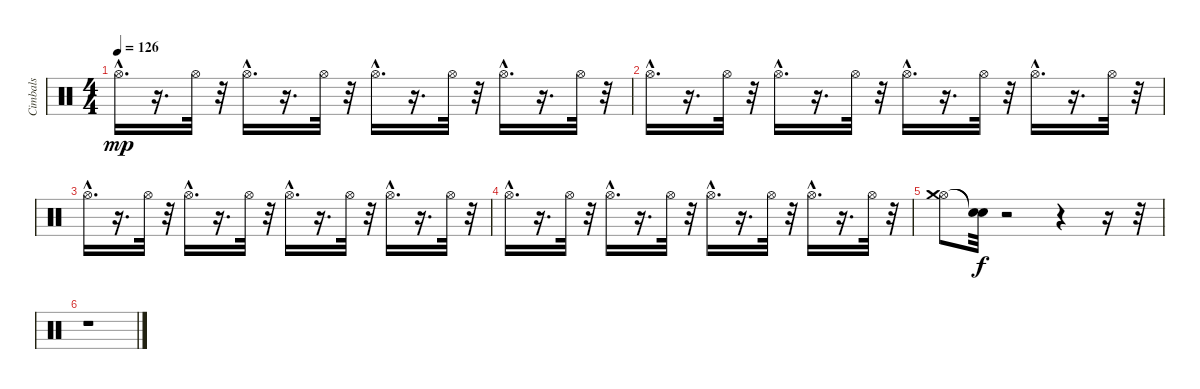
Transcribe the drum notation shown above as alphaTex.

\track ("Cimbals" "Cimbals") {instrument percussion}
\staff {score}
\articulation defaults
\ts (4 4)
\tempo 126
\clef neutral
\ks c "Hi-Hat (open)"{hac}.16{d dy mp}
r.16{d} "Hi-Hat (open)".32 r.32 "Hi-Hat (open)"{hac}.16{d} r.16{d} "Hi-Hat (open)".32 r.32 "Hi-Hat (open)"{hac}.16{d} r.16{d} "Hi-Hat (open)".32 r.32 "Hi-Hat (open)"{hac}.16{d} r.16{d} "Hi-Hat (open)".32 r.32 |
"Hi-Hat (open)"{hac}.16{d} r.16{d} "Hi-Hat (open)".32 r.32 "Hi-Hat (open)"{hac}.16{d} r.16{d} "Hi-Hat (open)".32 r.32 "Hi-Hat (open)"{hac}.16{d} r.16{d} "Hi-Hat (open)".32 r.32 "Hi-Hat (open)"{hac}.16{d} r.16{d} "Hi-Hat (open)".32 r.32 |
"Hi-Hat (open)"{hac}.16{d} r.16{d} "Hi-Hat (open)".32 r.32 "Hi-Hat (open)"{hac}.16{d} r.16{d} "Hi-Hat (open)".32 r.32 "Hi-Hat (open)"{hac}.16{d} r.16{d} "Hi-Hat (open)".32 r.32 "Hi-Hat (open)"{hac}.16{d} r.16{d} "Hi-Hat (open)".32 r.32 |
"Hi-Hat (open)"{hac}.16{d} r.16{d} "Hi-Hat (open)".32 r.32 "Hi-Hat (open)"{hac}.16{d} r.16{d} "Hi-Hat (open)".32 r.32 "Hi-Hat (open)"{hac}.16{d} r.16{d} "Hi-Hat (open)".32 r.32 "Hi-Hat (open)"{hac}.16{d} r.16{d} "Hi-Hat (open)".32 r.32 |
("Hi-Hat (open)" "Crash medium (hit)").8 ("Snare (hit)"{t} "Snare (hit)"{t}).32{dy f} r.2 r.4 r.16 r.32 |
r.1
